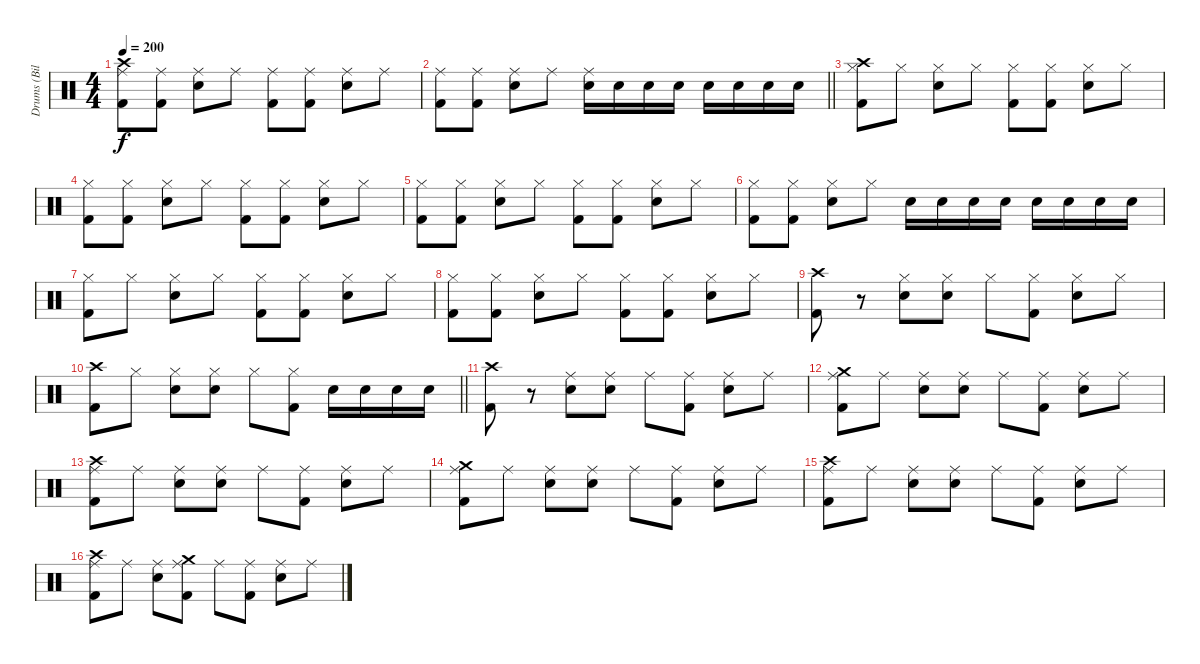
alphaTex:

\track ("Drums (Bill Stevenson)" "Drums (Bil") {instrument percussion}
\staff {score}
\articulation defaults
\ts (4 4)
\tempo 200
\clef neutral
\ks c
("Ride (middle)" "Crash high (hit)" "Kick (hit) 2").8{dy f} ("Ride (middle)" "Kick (hit) 2").8 ("Ride (middle)" "Electric Snare (hit)").8 "Ride (middle)".8 ("Ride (middle)" "Kick (hit) 2").8 ("Ride (middle)" "Kick (hit) 2").8 ("Ride (middle)" "Electric Snare (hit)").8 "Ride (middle)".8 |
\barLineRight lightlight
("Ride (middle)" "Kick (hit) 2").8 ("Ride (middle)" "Kick (hit) 2").8 ("Ride (middle)" "Electric Snare (hit)").8 "Ride (middle)".8 ("Ride (middle)" "Electric Snare (hit)").16 "Electric Snare (hit)".16 "Electric Snare (hit)".16 "Electric Snare (hit)".16 "Electric Snare (hit)".16 "Electric Snare (hit)".16 "Electric Snare (hit)".16 "Electric Snare (hit)".16 |
("Hi-Hat (closed)" "Crash high (hit)" "Kick (hit) 2").8 "Hi-Hat (closed)".8 ("Hi-Hat (closed)" "Electric Snare (hit)").8 "Hi-Hat (closed)".8 ("Hi-Hat (closed)" "Kick (hit) 2").8 ("Hi-Hat (closed)" "Kick (hit) 2").8 ("Hi-Hat (closed)" "Electric Snare (hit)").8 "Hi-Hat (closed)".8 |
("Hi-Hat (closed)" "Kick (hit) 2").8 ("Hi-Hat (closed)" "Kick (hit) 2").8 ("Hi-Hat (closed)" "Electric Snare (hit)").8 "Hi-Hat (closed)".8 ("Hi-Hat (closed)" "Kick (hit) 2").8 ("Hi-Hat (closed)" "Kick (hit) 2").8 ("Hi-Hat (closed)" "Electric Snare (hit)").8 "Hi-Hat (closed)".8 |
("Hi-Hat (closed)" "Kick (hit) 2").8 ("Hi-Hat (closed)" "Kick (hit) 2").8 ("Hi-Hat (closed)" "Electric Snare (hit)").8 "Hi-Hat (closed)".8 ("Hi-Hat (closed)" "Kick (hit) 2").8 ("Hi-Hat (closed)" "Kick (hit) 2").8 ("Hi-Hat (closed)" "Electric Snare (hit)").8 "Hi-Hat (closed)".8 |
("Hi-Hat (closed)" "Kick (hit) 2").8 ("Hi-Hat (closed)" "Kick (hit) 2").8 ("Hi-Hat (closed)" "Electric Snare (hit)").8 "Hi-Hat (closed)".8 "Electric Snare (hit)".16 "Electric Snare (hit)".16 "Electric Snare (hit)".16 "Electric Snare (hit)".16 "Electric Snare (hit)".16 "Electric Snare (hit)".16 "Electric Snare (hit)".16 "Electric Snare (hit)".16 |
("Hi-Hat (closed)" "Kick (hit) 2").8 "Hi-Hat (closed)".8 ("Hi-Hat (closed)" "Electric Snare (hit)").8 "Hi-Hat (closed)".8 ("Hi-Hat (closed)" "Kick (hit) 2").8 ("Hi-Hat (closed)" "Kick (hit) 2").8 ("Hi-Hat (closed)" "Electric Snare (hit)").8 "Hi-Hat (closed)".8 |
("Hi-Hat (closed)" "Kick (hit) 2").8 ("Hi-Hat (closed)" "Kick (hit) 2").8 ("Hi-Hat (closed)" "Electric Snare (hit)").8 "Hi-Hat (closed)".8 ("Hi-Hat (closed)" "Kick (hit) 2").8 ("Hi-Hat (closed)" "Kick (hit) 2").8 ("Hi-Hat (closed)" "Electric Snare (hit)").8 "Hi-Hat (closed)".8 |
("Crash high (hit)" "Kick (hit) 2").8 r.8 ("Hi-Hat (closed)" "Electric Snare (hit)").8 ("Hi-Hat (closed)" "Electric Snare (hit)").8 "Hi-Hat (closed)".8 ("Hi-Hat (closed)" "Kick (hit) 2").8 ("Hi-Hat (closed)" "Electric Snare (hit)").8 "Hi-Hat (closed)".8 |
\barLineRight lightlight
("Crash high (hit)" "Kick (hit) 2").8 "Hi-Hat (closed)".8 ("Hi-Hat (closed)" "Electric Snare (hit)").8 ("Hi-Hat (closed)" "Electric Snare (hit)").8 "Hi-Hat (closed)".8 ("Hi-Hat (closed)" "Kick (hit) 2").8 "Electric Snare (hit)".16 "Electric Snare (hit)".16 "Electric Snare (hit)".16 "Electric Snare (hit)".16 |
("Crash high (hit)" "Kick (hit) 2").8 r.8 ("Ride (middle)" "Electric Snare (hit)").8 ("Ride (middle)" "Electric Snare (hit)").8 "Ride (middle)".8 ("Ride (middle)" "Kick (hit) 2").8 ("Ride (middle)" "Electric Snare (hit)").8 "Ride (middle)".8 |
("Ride (middle)" "Crash medium (hit)" "Kick (hit) 2").8 "Ride (middle)".8 ("Ride (middle)" "Electric Snare (hit)").8 ("Ride (middle)" "Electric Snare (hit)").8 "Ride (middle)".8 ("Ride (middle)" "Kick (hit) 2").8 ("Ride (middle)" "Electric Snare (hit)").8 "Ride (middle)".8 |
("Ride (middle)" "Crash high (hit)" "Kick (hit) 2").8 "Ride (middle)".8 ("Ride (middle)" "Electric Snare (hit)").8 ("Ride (middle)" "Electric Snare (hit)").8 "Ride (middle)".8 ("Ride (middle)" "Kick (hit) 2").8 ("Ride (middle)" "Electric Snare (hit)").8 "Ride (middle)".8 |
("Ride (middle)" "Crash medium (hit)" "Kick (hit) 2").8 "Ride (middle)".8 ("Ride (middle)" "Electric Snare (hit)").8 ("Ride (middle)" "Electric Snare (hit)").8 "Ride (middle)".8 ("Ride (middle)" "Kick (hit) 2").8 ("Ride (middle)" "Electric Snare (hit)").8 "Ride (middle)".8 |
("Ride (middle)" "Crash high (hit)" "Kick (hit) 2").8 "Ride (middle)".8 ("Ride (middle)" "Electric Snare (hit)").8 ("Ride (middle)" "Electric Snare (hit)").8 "Ride (middle)".8 ("Ride (middle)" "Kick (hit) 2").8 ("Ride (middle)" "Electric Snare (hit)").8 "Ride (middle)".8 |
("Ride (middle)" "Crash high (hit)" "Kick (hit) 2").8 "Ride (middle)".8 ("Ride (middle)" "Electric Snare (hit)").8 ("Ride (middle)" "Crash medium (hit)" "Kick (hit) 2").8 "Ride (middle)".8 ("Ride (middle)" "Kick (hit) 2").8 ("Ride (middle)" "Electric Snare (hit)").8 "Ride (middle)".8
